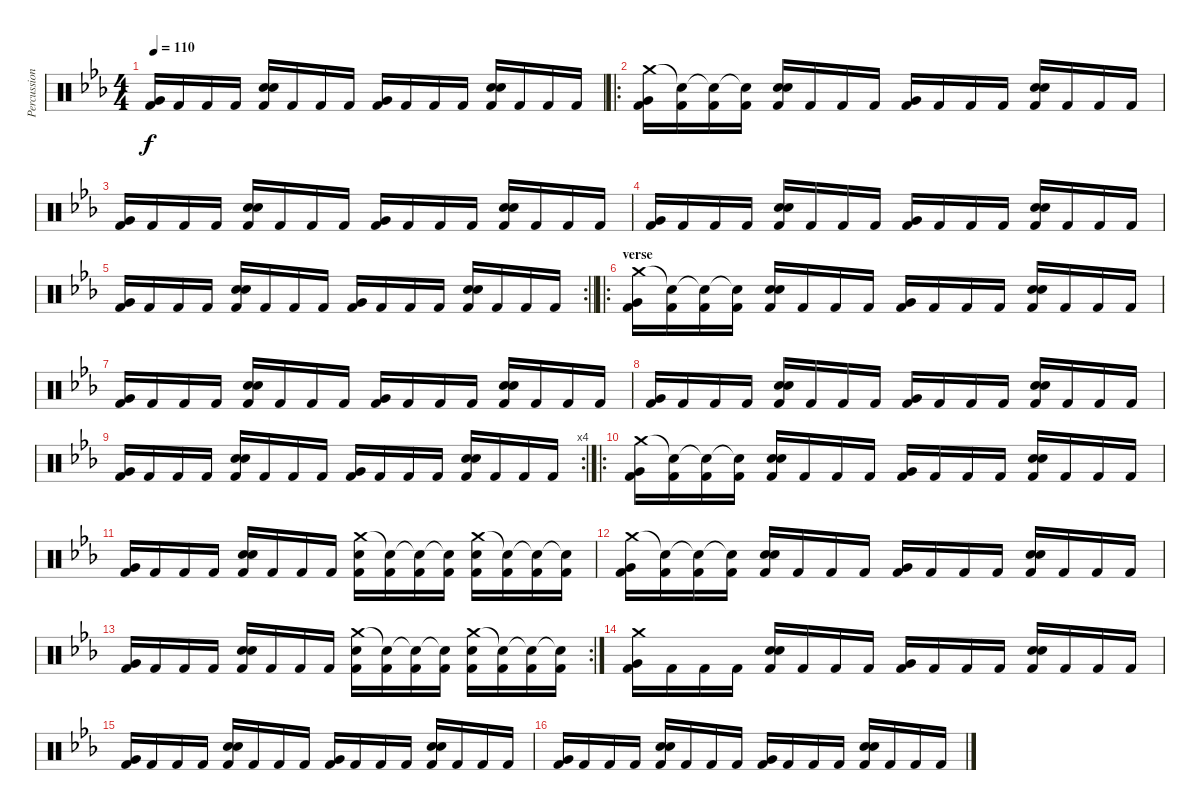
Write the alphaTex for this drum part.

\track ("Percussions" "Percussion") {instrument percussion}
\staff {score}
\articulation defaults
\ts (4 4)
\tempo 110
\clef neutral
\ks cminor
("Very Low Tom (hit)" "Kick (hit) 2").16{dy f} "Kick (hit) 2".16 "Kick (hit) 2".16 "Kick (hit) 2".16 ("Electric Snare (hit)" "Electric Snare (hit)" "Kick (hit) 2").16 "Kick (hit) 2".16 "Kick (hit) 2".16 "Kick (hit) 2".16 ("Very Low Tom (hit)" "Kick (hit) 2").16 "Kick (hit) 2".16 "Kick (hit) 2".16 "Kick (hit) 2".16 ("Electric Snare (hit)" "Electric Snare (hit)" "Kick (hit) 2").16 "Kick (hit) 2".16 "Kick (hit) 2".16 "Kick (hit) 2".16 |
\ro
("Crash medium (hit)" "Very Low Tom (hit)" "Kick (hit) 2").16 ("Snare (hit)"{t} "Kick (hit) 2").16 ("Snare (hit)"{t} "Kick (hit) 2").16 ("Snare (hit)"{t} "Kick (hit) 2").16 ("Electric Snare (hit)" "Electric Snare (hit)" "Kick (hit) 2").16 "Kick (hit) 2".16 "Kick (hit) 2".16 "Kick (hit) 2".16 ("Very Low Tom (hit)" "Kick (hit) 2").16 "Kick (hit) 2".16 "Kick (hit) 2".16 "Kick (hit) 2".16 ("Electric Snare (hit)" "Electric Snare (hit)" "Kick (hit) 2").16 "Kick (hit) 2".16 "Kick (hit) 2".16 "Kick (hit) 2".16 |
("Very Low Tom (hit)" "Kick (hit) 2").16 "Kick (hit) 2".16 "Kick (hit) 2".16 "Kick (hit) 2".16 ("Electric Snare (hit)" "Electric Snare (hit)" "Kick (hit) 2").16 "Kick (hit) 2".16 "Kick (hit) 2".16 "Kick (hit) 2".16 ("Very Low Tom (hit)" "Kick (hit) 2").16 "Kick (hit) 2".16 "Kick (hit) 2".16 "Kick (hit) 2".16 ("Electric Snare (hit)" "Electric Snare (hit)" "Kick (hit) 2").16 "Kick (hit) 2".16 "Kick (hit) 2".16 "Kick (hit) 2".16 |
("Very Low Tom (hit)" "Kick (hit) 2").16 "Kick (hit) 2".16 "Kick (hit) 2".16 "Kick (hit) 2".16 ("Electric Snare (hit)" "Electric Snare (hit)" "Kick (hit) 2").16 "Kick (hit) 2".16 "Kick (hit) 2".16 "Kick (hit) 2".16 ("Very Low Tom (hit)" "Kick (hit) 2").16 "Kick (hit) 2".16 "Kick (hit) 2".16 "Kick (hit) 2".16 ("Electric Snare (hit)" "Electric Snare (hit)" "Kick (hit) 2").16 "Kick (hit) 2".16 "Kick (hit) 2".16 "Kick (hit) 2".16 |
\rc 2
\barLineRight lightlight
("Very Low Tom (hit)" "Kick (hit) 2").16 "Kick (hit) 2".16 "Kick (hit) 2".16 "Kick (hit) 2".16 ("Electric Snare (hit)" "Electric Snare (hit)" "Kick (hit) 2").16 "Kick (hit) 2".16 "Kick (hit) 2".16 "Kick (hit) 2".16 ("Very Low Tom (hit)" "Kick (hit) 2").16 "Kick (hit) 2".16 "Kick (hit) 2".16 "Kick (hit) 2".16 ("Electric Snare (hit)" "Electric Snare (hit)" "Kick (hit) 2").16 "Kick (hit) 2".16 "Kick (hit) 2".16 "Kick (hit) 2".16 |
\ro
\section ("" "verse")
("Crash medium (hit)" "Very Low Tom (hit)" "Kick (hit) 2").16 ("Snare (hit)"{t} "Kick (hit) 2").16 ("Snare (hit)"{t} "Kick (hit) 2").16 ("Snare (hit)"{t} "Kick (hit) 2").16 ("Electric Snare (hit)" "Electric Snare (hit)" "Kick (hit) 2").16 "Kick (hit) 2".16 "Kick (hit) 2".16 "Kick (hit) 2".16 ("Very Low Tom (hit)" "Kick (hit) 2").16 "Kick (hit) 2".16 "Kick (hit) 2".16 "Kick (hit) 2".16 ("Electric Snare (hit)" "Electric Snare (hit)" "Kick (hit) 2").16 "Kick (hit) 2".16 "Kick (hit) 2".16 "Kick (hit) 2".16 |
("Very Low Tom (hit)" "Kick (hit) 2").16 "Kick (hit) 2".16 "Kick (hit) 2".16 "Kick (hit) 2".16 ("Electric Snare (hit)" "Electric Snare (hit)" "Kick (hit) 2").16 "Kick (hit) 2".16 "Kick (hit) 2".16 "Kick (hit) 2".16 ("Very Low Tom (hit)" "Kick (hit) 2").16 "Kick (hit) 2".16 "Kick (hit) 2".16 "Kick (hit) 2".16 ("Electric Snare (hit)" "Electric Snare (hit)" "Kick (hit) 2").16 "Kick (hit) 2".16 "Kick (hit) 2".16 "Kick (hit) 2".16 |
("Very Low Tom (hit)" "Kick (hit) 2").16 "Kick (hit) 2".16 "Kick (hit) 2".16 "Kick (hit) 2".16 ("Electric Snare (hit)" "Electric Snare (hit)" "Kick (hit) 2").16 "Kick (hit) 2".16 "Kick (hit) 2".16 "Kick (hit) 2".16 ("Very Low Tom (hit)" "Kick (hit) 2").16 "Kick (hit) 2".16 "Kick (hit) 2".16 "Kick (hit) 2".16 ("Electric Snare (hit)" "Electric Snare (hit)" "Kick (hit) 2").16 "Kick (hit) 2".16 "Kick (hit) 2".16 "Kick (hit) 2".16 |
\rc 4
("Very Low Tom (hit)" "Kick (hit) 2").16 "Kick (hit) 2".16 "Kick (hit) 2".16 "Kick (hit) 2".16 ("Electric Snare (hit)" "Electric Snare (hit)" "Kick (hit) 2").16 "Kick (hit) 2".16 "Kick (hit) 2".16 "Kick (hit) 2".16 ("Very Low Tom (hit)" "Kick (hit) 2").16 "Kick (hit) 2".16 "Kick (hit) 2".16 "Kick (hit) 2".16 ("Electric Snare (hit)" "Electric Snare (hit)" "Kick (hit) 2").16 "Kick (hit) 2".16 "Kick (hit) 2".16 "Kick (hit) 2".16 |
\ro
("Crash medium (hit)" "Very Low Tom (hit)" "Kick (hit) 2").16 ("Snare (hit)"{t} "Kick (hit) 2").16 ("Snare (hit)"{t} "Kick (hit) 2").16 ("Snare (hit)"{t} "Kick (hit) 2").16 ("Electric Snare (hit)" "Electric Snare (hit)" "Kick (hit) 2").16 "Kick (hit) 2".16 "Kick (hit) 2".16 "Kick (hit) 2".16 ("Very Low Tom (hit)" "Kick (hit) 2").16 "Kick (hit) 2".16 "Kick (hit) 2".16 "Kick (hit) 2".16 ("Electric Snare (hit)" "Electric Snare (hit)" "Kick (hit) 2").16 "Kick (hit) 2".16 "Kick (hit) 2".16 "Kick (hit) 2".16 |
("Very Low Tom (hit)" "Kick (hit) 2").16 "Kick (hit) 2".16 "Kick (hit) 2".16 "Kick (hit) 2".16 ("Electric Snare (hit)" "Electric Snare (hit)" "Kick (hit) 2").16 "Kick (hit) 2".16 "Kick (hit) 2".16 "Kick (hit) 2".16 ("Crash medium (hit)" "Electric Snare (hit)" "Kick (hit) 2").16 ("Snare (hit)"{t} "Kick (hit) 2").16 ("Snare (hit)"{t} "Kick (hit) 2").16 ("Snare (hit)"{t} "Kick (hit) 2").16 ("Crash medium (hit)" "Electric Snare (hit)" "Kick (hit) 2").16 ("Snare (hit)"{t} "Kick (hit) 2").16 ("Snare (hit)"{t} "Kick (hit) 2").16 ("Snare (hit)"{t} "Kick (hit) 2").16 |
("Crash medium (hit)" "Very Low Tom (hit)" "Kick (hit) 2").16 ("Snare (hit)"{t} "Kick (hit) 2").16 ("Snare (hit)"{t} "Kick (hit) 2").16 ("Snare (hit)"{t} "Kick (hit) 2").16 ("Electric Snare (hit)" "Electric Snare (hit)" "Kick (hit) 2").16 "Kick (hit) 2".16 "Kick (hit) 2".16 "Kick (hit) 2".16 ("Very Low Tom (hit)" "Kick (hit) 2").16 "Kick (hit) 2".16 "Kick (hit) 2".16 "Kick (hit) 2".16 ("Electric Snare (hit)" "Electric Snare (hit)" "Kick (hit) 2").16 "Kick (hit) 2".16 "Kick (hit) 2".16 "Kick (hit) 2".16 |
\rc 2
("Very Low Tom (hit)" "Kick (hit) 2").16 "Kick (hit) 2".16 "Kick (hit) 2".16 "Kick (hit) 2".16 ("Electric Snare (hit)" "Electric Snare (hit)" "Kick (hit) 2").16 "Kick (hit) 2".16 "Kick (hit) 2".16 "Kick (hit) 2".16 ("Crash medium (hit)" "Electric Snare (hit)" "Kick (hit) 2").16 ("Snare (hit)"{t} "Kick (hit) 2").16 ("Snare (hit)"{t} "Kick (hit) 2").16 ("Snare (hit)"{t} "Kick (hit) 2").16 ("Crash medium (hit)" "Electric Snare (hit)" "Kick (hit) 2").16 ("Snare (hit)"{t} "Kick (hit) 2").16 ("Snare (hit)"{t} "Kick (hit) 2").16 ("Snare (hit)"{t} "Kick (hit) 2").16 |
("Crash medium (hit)" "Very Low Tom (hit)" "Kick (hit) 2").16 "Kick (hit) 2".16 "Kick (hit) 2".16 "Kick (hit) 2".16 ("Electric Snare (hit)" "Electric Snare (hit)" "Kick (hit) 2").16 "Kick (hit) 2".16 "Kick (hit) 2".16 "Kick (hit) 2".16 ("Very Low Tom (hit)" "Kick (hit) 2").16 "Kick (hit) 2".16 "Kick (hit) 2".16 "Kick (hit) 2".16 ("Electric Snare (hit)" "Electric Snare (hit)" "Kick (hit) 2").16 "Kick (hit) 2".16 "Kick (hit) 2".16 "Kick (hit) 2".16 |
("Very Low Tom (hit)" "Kick (hit) 2").16 "Kick (hit) 2".16 "Kick (hit) 2".16 "Kick (hit) 2".16 ("Electric Snare (hit)" "Electric Snare (hit)" "Kick (hit) 2").16 "Kick (hit) 2".16 "Kick (hit) 2".16 "Kick (hit) 2".16 ("Very Low Tom (hit)" "Kick (hit) 2").16 "Kick (hit) 2".16 "Kick (hit) 2".16 "Kick (hit) 2".16 ("Electric Snare (hit)" "Electric Snare (hit)" "Kick (hit) 2").16 "Kick (hit) 2".16 "Kick (hit) 2".16 "Kick (hit) 2".16 |
("Very Low Tom (hit)" "Kick (hit) 2").16 "Kick (hit) 2".16 "Kick (hit) 2".16 "Kick (hit) 2".16 ("Electric Snare (hit)" "Electric Snare (hit)" "Kick (hit) 2").16 "Kick (hit) 2".16 "Kick (hit) 2".16 "Kick (hit) 2".16 ("Very Low Tom (hit)" "Kick (hit) 2").16 "Kick (hit) 2".16 "Kick (hit) 2".16 "Kick (hit) 2".16 ("Electric Snare (hit)" "Electric Snare (hit)" "Kick (hit) 2").16 "Kick (hit) 2".16 "Kick (hit) 2".16 "Kick (hit) 2".16
